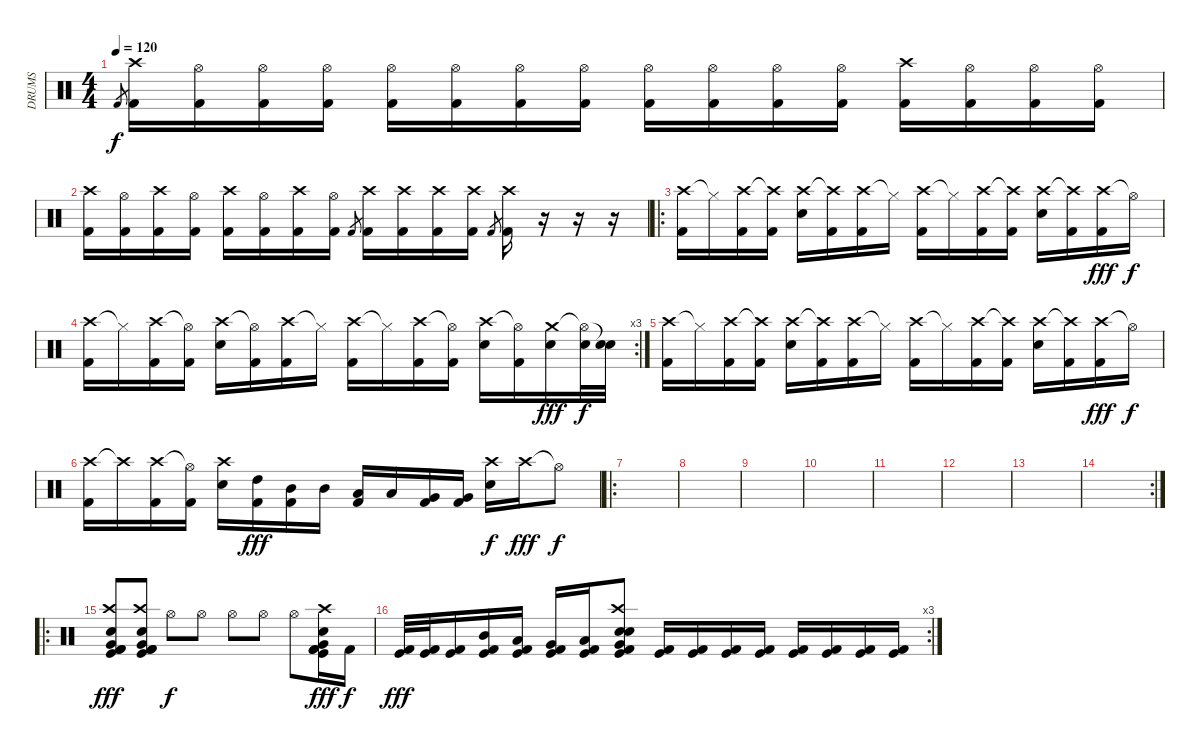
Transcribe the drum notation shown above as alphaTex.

\track ("DRUMS" "DRUMS") {instrument percussion}
\staff {score}
\articulation defaults
\ts (4 4)
\tempo 120
\clef neutral
\ks c "Kick (hit) 2".8{gr dy f}
("Crash high (hit)" "Kick (hit) 2").16 ("Hi-Hat (open)" "Kick (hit) 2").16 ("Hi-Hat (open)" "Kick (hit) 2").16 ("Hi-Hat (open)" "Kick (hit) 2").16 ("Hi-Hat (open)" "Kick (hit) 2").16 ("Hi-Hat (open)" "Kick (hit) 2").16 ("Hi-Hat (open)" "Kick (hit) 2").16 ("Hi-Hat (open)" "Kick (hit) 2").16 ("Hi-Hat (open)" "Kick (hit) 2").16 ("Hi-Hat (open)" "Kick (hit) 2").16 ("Hi-Hat (open)" "Kick (hit) 2").16 ("Hi-Hat (open)" "Kick (hit) 2").16 ("Crash high (hit)" "Kick (hit) 2").16 ("Hi-Hat (open)" "Kick (hit) 2").16 ("Hi-Hat (open)" "Kick (hit) 2").16 ("Hi-Hat (open)" "Kick (hit) 2").16 |
("Crash high (hit)" "Kick (hit) 2").16 ("Hi-Hat (open)" "Kick (hit) 2").16 ("Crash high (hit)" "Kick (hit) 2").16 ("Hi-Hat (open)" "Kick (hit) 2").16 ("Crash high (hit)" "Kick (hit) 2").16 ("Hi-Hat (open)" "Kick (hit) 2").16 ("Crash high (hit)" "Kick (hit) 2").16 ("Hi-Hat (open)" "Kick (hit) 2").16 "Kick (hit) 2".8{gr} ("Crash high (hit)" "Kick (hit) 2").16 ("Crash high (hit)" "Kick (hit) 2").16 ("Crash high (hit)" "Kick (hit) 2").16 ("Crash high (hit)" "Kick (hit) 2").16 "Kick (hit) 2".8{gr} ("Crash high (hit)" "Kick (hit) 2").16 r.16 r.16 r.16 |
\ro
("Crash high (hit)" "Kick (hit) 2").16 "Hi-Hat (closed)"{t}.16 ("Crash high (hit)" "Kick (hit) 2").16 ("Crash high (hit)"{t} "Kick (hit) 2").16 ("Crash high (hit)" "Electric Snare (hit)").16 ("Crash high (hit)"{t} "Kick (hit) 2").16 ("Crash high (hit)" "Kick (hit) 2").16 "Hi-Hat (closed)"{t}.16 ("Crash high (hit)" "Kick (hit) 2").16 "Hi-Hat (closed)"{t}.16 ("Crash high (hit)" "Kick (hit) 2").16 ("Crash high (hit)"{t} "Kick (hit) 2").16 ("Crash high (hit)" "Electric Snare (hit)").16 ("Crash high (hit)"{t} "Kick (hit) 2").16 ("Crash high (hit)" "Kick (hit) 2").16{dy fff} "Hi-Hat (open)"{t}.16{dy f} |
\rc 3
("Crash high (hit)" "Kick (hit) 2").16 "Hi-Hat (closed)"{t}.16 ("Crash high (hit)" "Kick (hit) 2").16 ("Hi-Hat (open)"{t} "Kick (hit) 2").16 ("Crash high (hit)" "Electric Snare (hit)").16 ("Hi-Hat (open)"{t} "Kick (hit) 2").16 ("Crash high (hit)" "Kick (hit) 2").16 "Hi-Hat (closed)"{t}.16 ("Crash high (hit)" "Kick (hit) 2").16 "Hi-Hat (closed)"{t}.16 ("Crash high (hit)" "Kick (hit) 2").16 ("Hi-Hat (open)"{t} "Kick (hit) 2").16 ("Crash high (hit)" "Electric Snare (hit)").16 ("Hi-Hat (open)"{t} "Kick (hit) 2").16 ("Crash medium (hit)" "Electric Snare (hit)").16{dy fff} ("Hi-Hat (open)"{t} "Electric Snare (hit)").32{dy f} ("Snare (hit)"{t} "Electric Snare (hit)").32 |
("Crash high (hit)" "Kick (hit) 2").16 "Hi-Hat (closed)"{t}.16 ("Crash high (hit)" "Kick (hit) 2").16 ("Crash high (hit)"{t} "Kick (hit) 2").16 ("Crash high (hit)" "Electric Snare (hit)").16 ("Crash high (hit)"{t} "Kick (hit) 2").16 ("Crash high (hit)" "Kick (hit) 2").16 "Hi-Hat (closed)"{t}.16 ("Crash high (hit)" "Kick (hit) 2").16 "Hi-Hat (closed)"{t}.16 ("Crash high (hit)" "Kick (hit) 2").16 ("Crash high (hit)"{t} "Kick (hit) 2").16 ("Crash high (hit)" "Electric Snare (hit)").16 ("Crash high (hit)"{t} "Kick (hit) 2").16 ("Crash high (hit)" "Kick (hit) 2").16{dy fff} "Hi-Hat (open)"{t}.16{dy f} |
("Crash high (hit)" "Kick (hit) 2").16 "Crash high (hit)"{t}.16 ("Crash high (hit)" "Kick (hit) 2").16 ("Hi-Hat (open)"{t} "Kick (hit) 2").16 ("Crash high (hit)" "Electric Snare (hit)").16 ("High Tom (hit)" "Kick (hit) 2").16{dy fff} ("Mid Tom (hit)" "Kick (hit) 2").16 "Mid Tom (hit)".16 ("Low Tom (hit)" "Kick (hit) 2").16 "Low Tom (hit)".16 ("Very Low Tom (hit)" "Kick (hit) 2").16 ("Very Low Tom (hit)" "Kick (hit) 2").16 ("Crash high (hit)" "Electric Snare (hit)").16{dy f} "Crash high (hit)".16{dy fff} "Hi-Hat (open)"{t}.8{dy f} |
\ro
|
|
|
|
|
|
|
\rc 2
|
\ro
("Very Low Tom (hit)" "Kick (hit)" "Kick (hit) 2" "Crash high (hit)" "Electric Snare (hit)" "Kick (hit) 2").8{dy fff} ("Very Low Tom (hit)" "Kick (hit)" "Kick (hit) 2" "Crash high (hit)" "Electric Snare (hit)" "Kick (hit) 2").8 "Hi-Hat (open)".8{dy f} "Hi-Hat (open)".8 "Hi-Hat (open)".8 "Hi-Hat (open)".8 "Hi-Hat (open)".8 ("Kick (hit)" "Kick (hit) 2" "Crash high (hit)" "Electric Snare (hit)" "Kick (hit) 2" "Very Low Tom (hit)").16{dy fff} "Kick (hit) 2".16{dy f} |
\rc 3
("Kick (hit)" "Kick (hit) 2").32{dy fff} ("Kick (hit)" "Kick (hit) 2").32 ("Kick (hit)" "Kick (hit) 2").16 ("Mid Tom (hit)" "Kick (hit)" "Kick (hit) 2").16 ("Low Tom (hit)" "Kick (hit)" "Kick (hit) 2").16 ("Very Low Tom (hit)" "Kick (hit)" "Kick (hit) 2").16 ("Low Floor Tom (hit)" "Kick (hit)" "Kick (hit) 2").16 ("Very Low Tom (hit)" "Crash high (hit)" "Kick (hit)" "Kick (hit) 2" "Electric Snare (hit)" "Electric Snare (hit)").8 ("Kick (hit)" "Kick (hit) 2").16 ("Kick (hit)" "Kick (hit) 2").16 ("Kick (hit)" "Kick (hit) 2").16 ("Kick (hit)" "Kick (hit) 2").16 ("Kick (hit)" "Kick (hit) 2").16 ("Kick (hit)" "Kick (hit) 2").16 ("Kick (hit)" "Kick (hit) 2").16 ("Kick (hit)" "Kick (hit) 2").16
